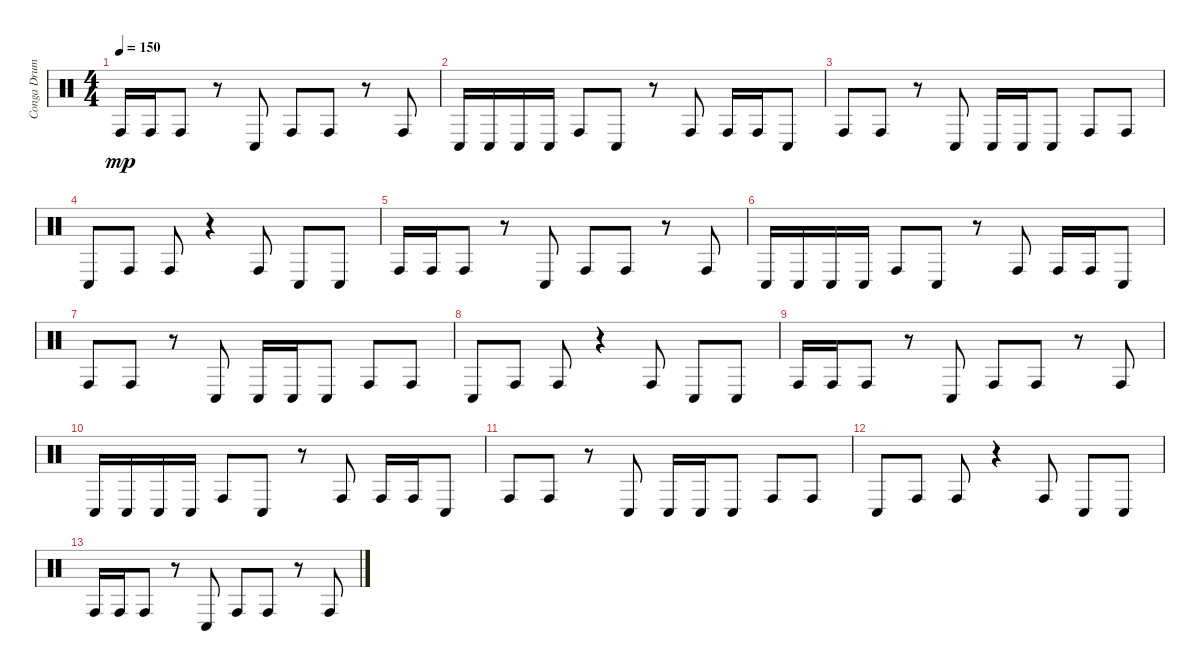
\track ("Conga Drum" "Conga Drum") {instrument percussion}
\staff {score}
\articulation defaults
\ts (4 4)
\tempo 150
\clef neutral
\ks c "Conga high (hit)".16{dy mp} "Conga high (hit)".16 "Conga high (hit)".8
r.8 "Conga low (hit)".8 "Conga high (hit)".8 "Conga high (hit)".8 r.8 "Conga high (hit)".8 |
"Conga low (hit)".16 "Conga low (hit)".16 "Conga low (hit)".16 "Conga low (hit)".16 "Conga high (hit)".8 "Conga low (hit)".8 r.8 "Conga high (hit)".8 "Conga high (hit)".16 "Conga high (hit)".16 "Conga low (hit)".8 |
"Conga high (hit)".8 "Conga high (hit)".8 r.8 "Conga low (hit)".8 "Conga low (hit)".16 "Conga low (hit)".16 "Conga low (hit)".8 "Conga high (hit)".8 "Conga high (hit)".8 |
"Conga low (hit)".8 "Conga high (hit)".8 "Conga high (hit)".8 r.4 "Conga high (hit)".8 "Conga low (hit)".8 "Conga low (hit)".8 |
"Conga high (hit)".16 "Conga high (hit)".16 "Conga high (hit)".8 r.8 "Conga low (hit)".8 "Conga high (hit)".8 "Conga high (hit)".8 r.8 "Conga high (hit)".8 |
"Conga low (hit)".16 "Conga low (hit)".16 "Conga low (hit)".16 "Conga low (hit)".16 "Conga high (hit)".8 "Conga low (hit)".8 r.8 "Conga high (hit)".8 "Conga high (hit)".16 "Conga high (hit)".16 "Conga low (hit)".8 |
"Conga high (hit)".8 "Conga high (hit)".8 r.8 "Conga low (hit)".8 "Conga low (hit)".16 "Conga low (hit)".16 "Conga low (hit)".8 "Conga high (hit)".8 "Conga high (hit)".8 |
"Conga low (hit)".8 "Conga high (hit)".8 "Conga high (hit)".8 r.4 "Conga high (hit)".8 "Conga low (hit)".8 "Conga low (hit)".8 |
"Conga high (hit)".16 "Conga high (hit)".16 "Conga high (hit)".8 r.8 "Conga low (hit)".8 "Conga high (hit)".8 "Conga high (hit)".8 r.8 "Conga high (hit)".8 |
"Conga low (hit)".16 "Conga low (hit)".16 "Conga low (hit)".16 "Conga low (hit)".16 "Conga high (hit)".8 "Conga low (hit)".8 r.8 "Conga high (hit)".8 "Conga high (hit)".16 "Conga high (hit)".16 "Conga low (hit)".8 |
"Conga high (hit)".8 "Conga high (hit)".8 r.8 "Conga low (hit)".8 "Conga low (hit)".16 "Conga low (hit)".16 "Conga low (hit)".8 "Conga high (hit)".8 "Conga high (hit)".8 |
"Conga low (hit)".8 "Conga high (hit)".8 "Conga high (hit)".8 r.4 "Conga high (hit)".8 "Conga low (hit)".8 "Conga low (hit)".8 |
"Conga high (hit)".16 "Conga high (hit)".16 "Conga high (hit)".8 r.8 "Conga low (hit)".8 "Conga high (hit)".8 "Conga high (hit)".8 r.8 "Conga high (hit)".8
